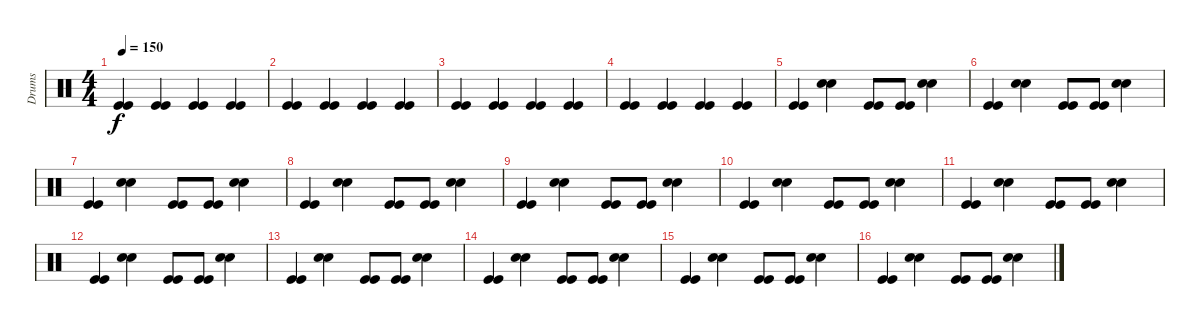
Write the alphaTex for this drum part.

\track ("Drums" "Drums") {instrument percussion}
\staff {score}
\articulation defaults
\ts (4 4)
\tempo 150
\clef neutral
\ks c
("Kick (hit)" "Kick (hit)").4{dy f} ("Kick (hit)" "Kick (hit)").4 ("Kick (hit)" "Kick (hit)").4 ("Kick (hit)" "Kick (hit)").4 |
("Kick (hit)" "Kick (hit)").4 ("Kick (hit)" "Kick (hit)").4 ("Kick (hit)" "Kick (hit)").4 ("Kick (hit)" "Kick (hit)").4 |
("Kick (hit)" "Kick (hit)").4 ("Kick (hit)" "Kick (hit)").4 ("Kick (hit)" "Kick (hit)").4 ("Kick (hit)" "Kick (hit)").4 |
("Kick (hit)" "Kick (hit)").4 ("Kick (hit)" "Kick (hit)").4 ("Kick (hit)" "Kick (hit)").4 ("Kick (hit)" "Kick (hit)").4 |
("Kick (hit)" "Kick (hit)").4 ("Snare (hit) 2" "Snare (hit) 2").4 ("Kick (hit)" "Kick (hit)").8 ("Kick (hit)" "Kick (hit)").8 ("Snare (hit) 2" "Snare (hit) 2").4 |
("Kick (hit)" "Kick (hit)").4 ("Snare (hit) 2" "Snare (hit) 2").4 ("Kick (hit)" "Kick (hit)").8 ("Kick (hit)" "Kick (hit)").8 ("Snare (hit) 2" "Snare (hit) 2").4 |
("Kick (hit)" "Kick (hit)").4 ("Snare (hit) 2" "Snare (hit) 2").4 ("Kick (hit)" "Kick (hit)").8 ("Kick (hit)" "Kick (hit)").8 ("Snare (hit) 2" "Snare (hit) 2").4 |
("Kick (hit)" "Kick (hit)").4 ("Snare (hit) 2" "Snare (hit) 2").4 ("Kick (hit)" "Kick (hit)").8 ("Kick (hit)" "Kick (hit)").8 ("Snare (hit) 2" "Snare (hit) 2").4 |
("Kick (hit)" "Kick (hit)").4 ("Snare (hit) 2" "Snare (hit) 2").4 ("Kick (hit)" "Kick (hit)").8 ("Kick (hit)" "Kick (hit)").8 ("Snare (hit) 2" "Snare (hit) 2").4 |
("Kick (hit)" "Kick (hit)").4 ("Snare (hit) 2" "Snare (hit) 2").4 ("Kick (hit)" "Kick (hit)").8 ("Kick (hit)" "Kick (hit)").8 ("Snare (hit) 2" "Snare (hit) 2").4 |
("Kick (hit)" "Kick (hit)").4 ("Snare (hit) 2" "Snare (hit) 2").4 ("Kick (hit)" "Kick (hit)").8 ("Kick (hit)" "Kick (hit)").8 ("Snare (hit) 2" "Snare (hit) 2").4 |
("Kick (hit)" "Kick (hit)").4 ("Snare (hit) 2" "Snare (hit) 2").4 ("Kick (hit)" "Kick (hit)").8 ("Kick (hit)" "Kick (hit)").8 ("Snare (hit) 2" "Snare (hit) 2").4 |
("Kick (hit)" "Kick (hit)").4 ("Snare (hit) 2" "Snare (hit) 2").4 ("Kick (hit)" "Kick (hit)").8 ("Kick (hit)" "Kick (hit)").8 ("Snare (hit) 2" "Snare (hit) 2").4 |
("Kick (hit)" "Kick (hit)").4 ("Snare (hit) 2" "Snare (hit) 2").4 ("Kick (hit)" "Kick (hit)").8 ("Kick (hit)" "Kick (hit)").8 ("Snare (hit) 2" "Snare (hit) 2").4 |
("Kick (hit)" "Kick (hit)").4 ("Snare (hit) 2" "Snare (hit) 2").4 ("Kick (hit)" "Kick (hit)").8 ("Kick (hit)" "Kick (hit)").8 ("Snare (hit) 2" "Snare (hit) 2").4 |
("Kick (hit)" "Kick (hit)").4 ("Snare (hit) 2" "Snare (hit) 2").4 ("Kick (hit)" "Kick (hit)").8 ("Kick (hit)" "Kick (hit)").8 ("Snare (hit) 2" "Snare (hit) 2").4
